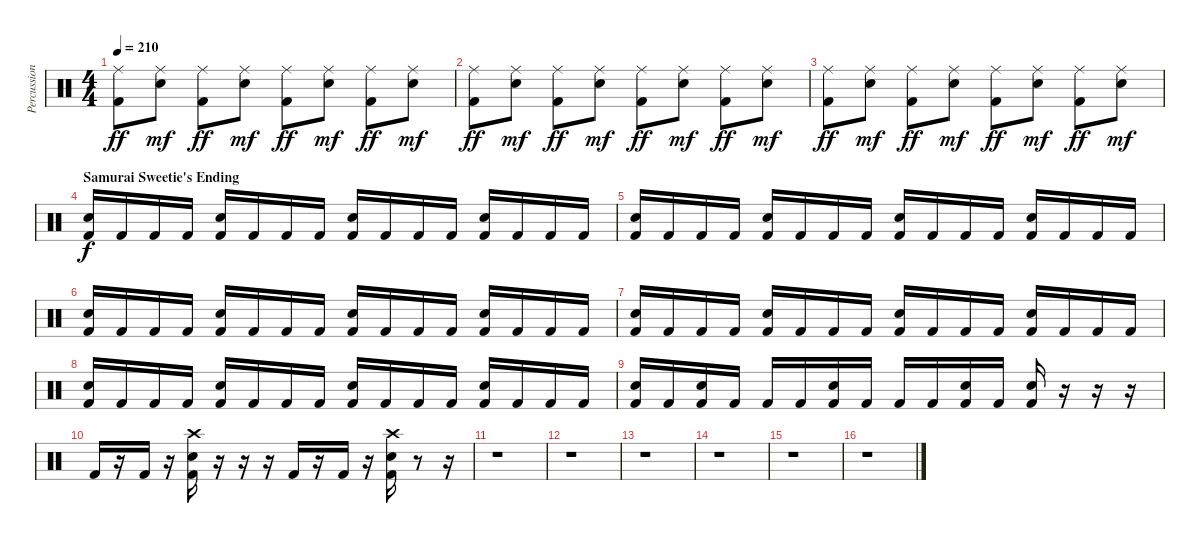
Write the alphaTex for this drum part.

\track ("Percussion" "Percussion") {instrument percussion}
\staff {score}
\articulation defaults
\ts (4 4)
\tempo 210
\clef neutral
\ks c
("Ride (middle)" "Kick (hit) 2").8{dy ff} ("Ride (middle)" "Snare (hit) 2").8{dy mf} ("Ride (middle)" "Kick (hit) 2").8{dy ff} ("Ride (middle)" "Snare (hit) 2").8{dy mf} ("Ride (middle)" "Kick (hit) 2").8{dy ff} ("Ride (middle)" "Snare (hit) 2").8{dy mf} ("Ride (middle)" "Kick (hit) 2").8{dy ff} ("Ride (middle)" "Snare (hit) 2").8{dy mf} |
("Ride (middle)" "Kick (hit) 2").8{dy ff} ("Ride (middle)" "Snare (hit) 2").8{dy mf} ("Ride (middle)" "Kick (hit) 2").8{dy ff} ("Ride (middle)" "Snare (hit) 2").8{dy mf} ("Ride (middle)" "Kick (hit) 2").8{dy ff} ("Ride (middle)" "Snare (hit) 2").8{dy mf} ("Ride (middle)" "Kick (hit) 2").8{dy ff} ("Ride (middle)" "Snare (hit) 2").8{dy mf} |
("Ride (middle)" "Kick (hit) 2").8{dy ff} ("Ride (middle)" "Snare (hit) 2").8{dy mf} ("Ride (middle)" "Kick (hit) 2").8{dy ff} ("Ride (middle)" "Snare (hit) 2").8{dy mf} ("Ride (middle)" "Kick (hit) 2").8{dy ff} ("Ride (middle)" "Snare (hit) 2").8{dy mf} ("Ride (middle)" "Kick (hit) 2").8{dy ff} ("Ride (middle)" "Snare (hit) 2").8{dy mf} |
\section ("" "Samurai Sweetie's Ending")
("Electric Snare (hit)" "Kick (hit) 2").16{dy f} "Kick (hit) 2".16 "Kick (hit) 2".16 "Kick (hit) 2".16 ("Electric Snare (hit)" "Kick (hit) 2").16 "Kick (hit) 2".16 "Kick (hit) 2".16 "Kick (hit) 2".16 ("Electric Snare (hit)" "Kick (hit) 2").16 "Kick (hit) 2".16 "Kick (hit) 2".16 "Kick (hit) 2".16 ("Electric Snare (hit)" "Kick (hit) 2").16 "Kick (hit) 2".16 "Kick (hit) 2".16 "Kick (hit) 2".16 |
("Electric Snare (hit)" "Kick (hit) 2").16 "Kick (hit) 2".16 "Kick (hit) 2".16 "Kick (hit) 2".16 ("Electric Snare (hit)" "Kick (hit) 2").16 "Kick (hit) 2".16 "Kick (hit) 2".16 "Kick (hit) 2".16 ("Electric Snare (hit)" "Kick (hit) 2").16 "Kick (hit) 2".16 "Kick (hit) 2".16 "Kick (hit) 2".16 ("Electric Snare (hit)" "Kick (hit) 2").16 "Kick (hit) 2".16 "Kick (hit) 2".16 "Kick (hit) 2".16 |
("Electric Snare (hit)" "Kick (hit) 2").16 "Kick (hit) 2".16 "Kick (hit) 2".16 "Kick (hit) 2".16 ("Electric Snare (hit)" "Kick (hit) 2").16 "Kick (hit) 2".16 "Kick (hit) 2".16 "Kick (hit) 2".16 ("Electric Snare (hit)" "Kick (hit) 2").16 "Kick (hit) 2".16 "Kick (hit) 2".16 "Kick (hit) 2".16 ("Electric Snare (hit)" "Kick (hit) 2").16 "Kick (hit) 2".16 "Kick (hit) 2".16 "Kick (hit) 2".16 |
("Electric Snare (hit)" "Kick (hit) 2").16 "Kick (hit) 2".16 "Kick (hit) 2".16 "Kick (hit) 2".16 ("Electric Snare (hit)" "Kick (hit) 2").16 "Kick (hit) 2".16 "Kick (hit) 2".16 "Kick (hit) 2".16 ("Electric Snare (hit)" "Kick (hit) 2").16 "Kick (hit) 2".16 "Kick (hit) 2".16 "Kick (hit) 2".16 ("Electric Snare (hit)" "Kick (hit) 2").16 "Kick (hit) 2".16 "Kick (hit) 2".16 "Kick (hit) 2".16 |
("Electric Snare (hit)" "Kick (hit) 2").16 "Kick (hit) 2".16 "Kick (hit) 2".16 "Kick (hit) 2".16 ("Electric Snare (hit)" "Kick (hit) 2").16 "Kick (hit) 2".16 "Kick (hit) 2".16 "Kick (hit) 2".16 ("Electric Snare (hit)" "Kick (hit) 2").16 "Kick (hit) 2".16 "Kick (hit) 2".16 "Kick (hit) 2".16 ("Electric Snare (hit)" "Kick (hit) 2").16 "Kick (hit) 2".16 "Kick (hit) 2".16 "Kick (hit) 2".16 |
("Electric Snare (hit)" "Kick (hit) 2").16 "Kick (hit) 2".16 ("Electric Snare (hit)" "Kick (hit) 2").16 "Kick (hit) 2".16 "Kick (hit) 2".16 "Kick (hit) 2".16 ("Electric Snare (hit)" "Kick (hit) 2").16 "Kick (hit) 2".16 "Kick (hit) 2".16 "Kick (hit) 2".16 ("Electric Snare (hit)" "Kick (hit) 2").16 "Kick (hit) 2".16 ("Electric Snare (hit)" "Kick (hit) 2").16 r.16 r.16 r.16 |
"Kick (hit) 2".16 r.16 "Kick (hit) 2".16 r.16 ("Crash high (hit)" "Electric Snare (hit)" "Kick (hit) 2").16 r.16 r.16 r.16 "Kick (hit) 2".16 r.16 "Kick (hit) 2".16 r.16 ("Crash high (hit)" "Electric Snare (hit)" "Kick (hit) 2").16 r.8 r.16 |
r.1 |
r.1 |
r.1 |
r.1 |
r.1 |
r.1
